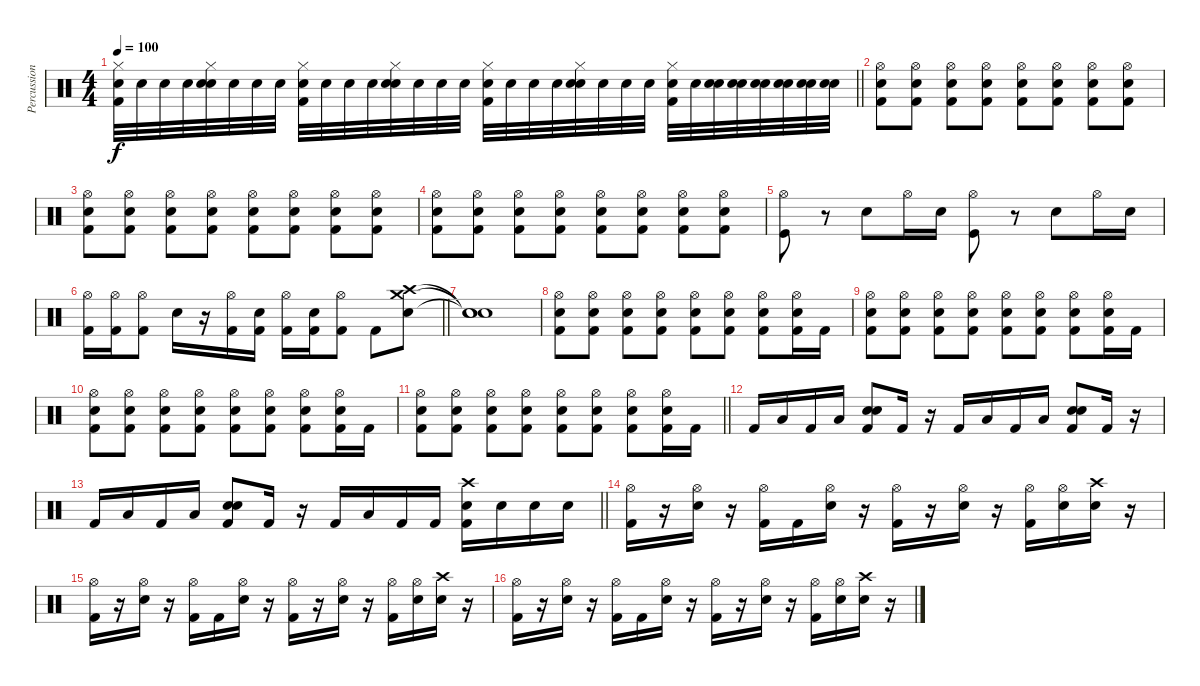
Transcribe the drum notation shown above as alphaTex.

\track ("Percussions" "Percussion") {instrument percussion}
\staff {score}
\articulation defaults
\ts (4 4)
\tempo 100
\clef neutral
\barLineRight lightlight
\ks c
("Hi-Hat (closed)" "Electric Snare (hit)" "Kick (hit) 2").32{dy f} "Electric Snare (hit)".32 "Electric Snare (hit)".32 "Electric Snare (hit)".32 ("Snare (hit) 2" "Hi-Hat (closed)" "Electric Snare (hit)").32 "Electric Snare (hit)".32 "Electric Snare (hit)".32 "Electric Snare (hit)".32 ("Hi-Hat (closed)" "Electric Snare (hit)" "Kick (hit) 2").32 "Electric Snare (hit)".32 "Electric Snare (hit)".32 "Electric Snare (hit)".32 ("Snare (hit) 2" "Hi-Hat (closed)" "Electric Snare (hit)").32 "Electric Snare (hit)".32 "Electric Snare (hit)".32 "Electric Snare (hit)".32 ("Hi-Hat (closed)" "Electric Snare (hit)" "Kick (hit) 2").32 "Electric Snare (hit)".32 "Electric Snare (hit)".32 "Electric Snare (hit)".32 ("Snare (hit) 2" "Hi-Hat (closed)" "Electric Snare (hit)").32 "Electric Snare (hit)".32 "Electric Snare (hit)".32 "Electric Snare (hit)".32 ("Hi-Hat (closed)" "Electric Snare (hit)" "Kick (hit) 2").32 "Electric Snare (hit)".32 ("Electric Snare (hit)" "Electric Snare (hit)").32 ("Electric Snare (hit)" "Electric Snare (hit)").32 ("Electric Snare (hit)" "Electric Snare (hit)").32 ("Electric Snare (hit)" "Electric Snare (hit)").32 ("Electric Snare (hit)" "Electric Snare (hit)").32 ("Electric Snare (hit)" "Electric Snare (hit)").32 |
("Hi-Hat (open)" "Electric Snare (hit)" "Kick (hit) 2").8 ("Hi-Hat (open)" "Electric Snare (hit)" "Kick (hit) 2").8 ("Hi-Hat (open)" "Electric Snare (hit)" "Kick (hit) 2").8 ("Hi-Hat (open)" "Electric Snare (hit)" "Kick (hit) 2").8 ("Hi-Hat (open)" "Electric Snare (hit)" "Kick (hit) 2").8 ("Hi-Hat (open)" "Electric Snare (hit)" "Kick (hit) 2").8 ("Hi-Hat (open)" "Electric Snare (hit)" "Kick (hit) 2").8 ("Hi-Hat (open)" "Electric Snare (hit)" "Kick (hit) 2").8 |
("Hi-Hat (open)" "Electric Snare (hit)" "Kick (hit) 2").8 ("Hi-Hat (open)" "Electric Snare (hit)" "Kick (hit) 2").8 ("Hi-Hat (open)" "Electric Snare (hit)" "Kick (hit) 2").8 ("Hi-Hat (open)" "Electric Snare (hit)" "Kick (hit) 2").8 ("Hi-Hat (open)" "Electric Snare (hit)" "Kick (hit) 2").8 ("Hi-Hat (open)" "Electric Snare (hit)" "Kick (hit) 2").8 ("Hi-Hat (open)" "Electric Snare (hit)" "Kick (hit) 2").8 ("Hi-Hat (open)" "Electric Snare (hit)" "Kick (hit) 2").8 |
("Hi-Hat (open)" "Electric Snare (hit)" "Kick (hit) 2").8 ("Hi-Hat (open)" "Electric Snare (hit)" "Kick (hit) 2").8 ("Hi-Hat (open)" "Electric Snare (hit)" "Kick (hit) 2").8 ("Hi-Hat (open)" "Electric Snare (hit)" "Kick (hit) 2").8 ("Hi-Hat (open)" "Electric Snare (hit)" "Kick (hit) 2").8 ("Hi-Hat (open)" "Electric Snare (hit)" "Kick (hit) 2").8 ("Hi-Hat (open)" "Electric Snare (hit)" "Kick (hit) 2").8 ("Hi-Hat (open)" "Electric Snare (hit)" "Kick (hit) 2").8 |
("Hi-Hat (open)" "Kick (hit)").8 r.8 "Electric Snare (hit)".8 "Hi-Hat (open)".16 "Electric Snare (hit)".16 ("Hi-Hat (open)" "Kick (hit)").8 r.8 "Electric Snare (hit)".8 "Hi-Hat (open)".16 "Electric Snare (hit)".16 |
\barLineRight lightlight
("Hi-Hat (open)" "Kick (hit) 2").16 ("Hi-Hat (open)" "Kick (hit) 2").16 ("Hi-Hat (open)" "Kick (hit) 2").8 "Electric Snare (hit)".16 r.16 ("Hi-Hat (open)" "Kick (hit) 2").16 ("Electric Snare (hit)" "Kick (hit) 2").16 ("Hi-Hat (open)" "Kick (hit) 2").16 ("Electric Snare (hit)" "Kick (hit) 2").16 ("Hi-Hat (open)" "Kick (hit) 2").8 "Kick (hit) 2".8 ("Crash high (hit)" "Crash medium (hit)" "Electric Snare (hit)").8 |
("Snare (hit)"{t} "Snare (hit)"{t} "Snare (hit)"{t}).1 |
("Hi-Hat (open)" "Electric Snare (hit)" "Kick (hit) 2").8 ("Hi-Hat (open)" "Electric Snare (hit)" "Kick (hit) 2").8 ("Hi-Hat (open)" "Electric Snare (hit)" "Kick (hit) 2").8 ("Hi-Hat (open)" "Electric Snare (hit)" "Kick (hit) 2").8 ("Hi-Hat (open)" "Electric Snare (hit)" "Kick (hit) 2").8 ("Hi-Hat (open)" "Electric Snare (hit)" "Kick (hit) 2").8 ("Hi-Hat (open)" "Electric Snare (hit)" "Kick (hit) 2").8 ("Hi-Hat (open)" "Electric Snare (hit)" "Kick (hit) 2").16 "Kick (hit) 2".16 |
("Hi-Hat (open)" "Electric Snare (hit)" "Kick (hit) 2").8 ("Hi-Hat (open)" "Electric Snare (hit)" "Kick (hit) 2").8 ("Hi-Hat (open)" "Electric Snare (hit)" "Kick (hit) 2").8 ("Hi-Hat (open)" "Electric Snare (hit)" "Kick (hit) 2").8 ("Hi-Hat (open)" "Electric Snare (hit)" "Kick (hit) 2").8 ("Hi-Hat (open)" "Electric Snare (hit)" "Kick (hit) 2").8 ("Hi-Hat (open)" "Electric Snare (hit)" "Kick (hit) 2").8 ("Hi-Hat (open)" "Electric Snare (hit)" "Kick (hit) 2").16 "Kick (hit) 2".16 |
("Hi-Hat (open)" "Electric Snare (hit)" "Kick (hit) 2").8 ("Hi-Hat (open)" "Electric Snare (hit)" "Kick (hit) 2").8 ("Hi-Hat (open)" "Electric Snare (hit)" "Kick (hit) 2").8 ("Hi-Hat (open)" "Electric Snare (hit)" "Kick (hit) 2").8 ("Hi-Hat (open)" "Electric Snare (hit)" "Kick (hit) 2").8 ("Hi-Hat (open)" "Electric Snare (hit)" "Kick (hit) 2").8 ("Hi-Hat (open)" "Electric Snare (hit)" "Kick (hit) 2").8 ("Hi-Hat (open)" "Electric Snare (hit)" "Kick (hit) 2").16 "Kick (hit) 2".16 |
\barLineRight lightlight
("Hi-Hat (open)" "Electric Snare (hit)" "Kick (hit) 2").8 ("Hi-Hat (open)" "Electric Snare (hit)" "Kick (hit) 2").8 ("Hi-Hat (open)" "Electric Snare (hit)" "Kick (hit) 2").8 ("Hi-Hat (open)" "Electric Snare (hit)" "Kick (hit) 2").8 ("Hi-Hat (open)" "Electric Snare (hit)" "Kick (hit) 2").8 ("Hi-Hat (open)" "Electric Snare (hit)" "Kick (hit) 2").8 ("Hi-Hat (open)" "Electric Snare (hit)" "Kick (hit) 2").8 ("Hi-Hat (open)" "Electric Snare (hit)" "Kick (hit) 2").16 "Kick (hit) 2".16 |
"Kick (hit) 2".16 "Low Floor Tom (hit)".16 "Kick (hit) 2".16 "Low Floor Tom (hit)".16 ("Electric Snare (hit)" "Electric Snare (hit)" "Kick (hit) 2").8 "Kick (hit) 2".16 r.16 "Kick (hit) 2".16 "Low Floor Tom (hit)".16 "Kick (hit) 2".16 "Low Floor Tom (hit)".16 ("Electric Snare (hit)" "Electric Snare (hit)" "Kick (hit) 2").8 "Kick (hit) 2".16 r.16 |
\barLineRight lightlight "Kick (hit) 2".16 "Low Floor Tom (hit)".16 "Kick (hit) 2".16 "Low Floor Tom (hit)".16
("Electric Snare (hit)" "Electric Snare (hit)" "Kick (hit) 2").8 "Kick (hit) 2".16 r.16 "Kick (hit) 2".16 "Low Floor Tom (hit)".16 "Kick (hit) 2".16 "Kick (hit) 2".16 ("Crash high (hit)" "Electric Snare (hit)" "Kick (hit) 2").16 "Electric Snare (hit)".16 "Electric Snare (hit)".16 "Electric Snare (hit)".16 |
("Hi-Hat (open)" "Kick (hit) 2").16 r.16 ("Hi-Hat (open)" "Electric Snare (hit)").16 r.16 ("Hi-Hat (open)" "Kick (hit) 2").16 "Kick (hit) 2".16 ("Hi-Hat (open)" "Electric Snare (hit)").16 r.16 ("Hi-Hat (open)" "Kick (hit) 2").16 r.16 ("Hi-Hat (open)" "Electric Snare (hit)").16 r.16 ("Hi-Hat (open)" "Kick (hit) 2").16 ("Hi-Hat (open)" "Electric Snare (hit)").16 ("Crash high (hit)" "Electric Snare (hit)").16 r.16 |
("Hi-Hat (open)" "Kick (hit) 2").16 r.16 ("Hi-Hat (open)" "Electric Snare (hit)").16 r.16 ("Hi-Hat (open)" "Kick (hit) 2").16 "Kick (hit) 2".16 ("Hi-Hat (open)" "Electric Snare (hit)").16 r.16 ("Hi-Hat (open)" "Kick (hit) 2").16 r.16 ("Hi-Hat (open)" "Electric Snare (hit)").16 r.16 ("Hi-Hat (open)" "Kick (hit) 2").16 ("Hi-Hat (open)" "Electric Snare (hit)").16 ("Crash high (hit)" "Electric Snare (hit)").16 r.16 |
("Hi-Hat (open)" "Kick (hit) 2").16 r.16 ("Hi-Hat (open)" "Electric Snare (hit)").16 r.16 ("Hi-Hat (open)" "Kick (hit) 2").16 "Kick (hit) 2".16 ("Hi-Hat (open)" "Electric Snare (hit)").16 r.16 ("Hi-Hat (open)" "Kick (hit) 2").16 r.16 ("Hi-Hat (open)" "Electric Snare (hit)").16 r.16 ("Hi-Hat (open)" "Kick (hit) 2").16 ("Hi-Hat (open)" "Electric Snare (hit)").16 ("Crash high (hit)" "Electric Snare (hit)").16 r.16
